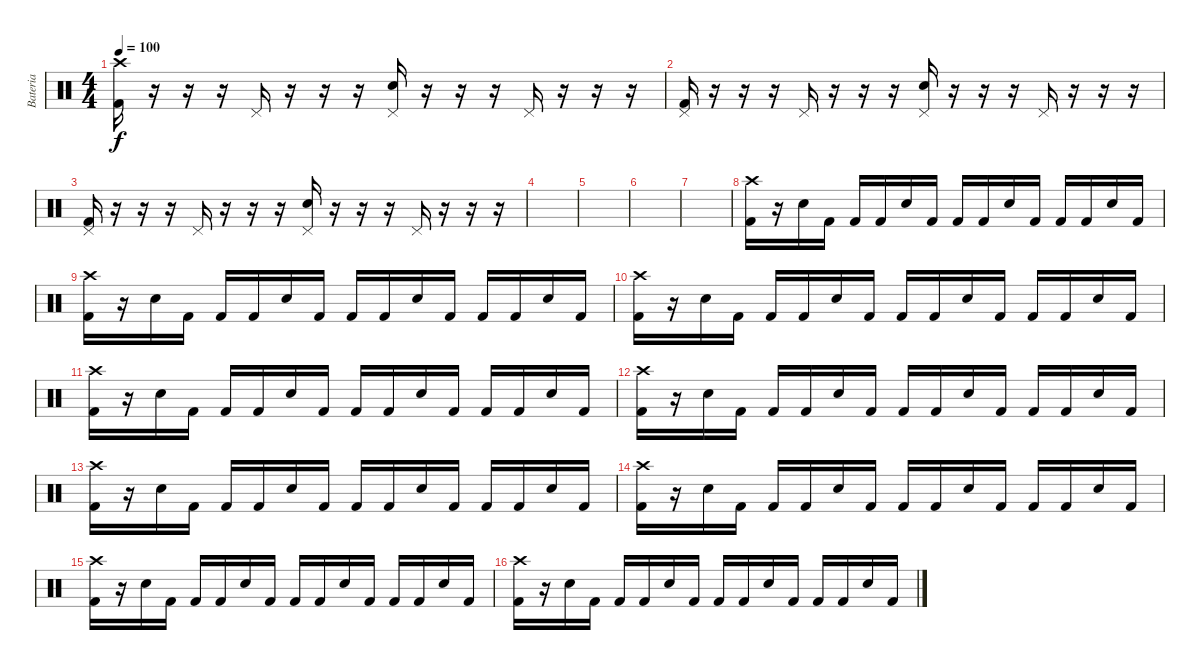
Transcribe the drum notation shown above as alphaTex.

\track ("Bateria" "Bateria") {instrument percussion}
\staff {score}
\articulation defaults
\ts (4 4)
\tempo 100
\clef neutral
\ks c
("Crash high (hit)" "Kick (hit) 2").16{dy f} r.16 r.16 r.16 "Pedal Hi-Hat (hit)".16 r.16 r.16 r.16 ("Pedal Hi-Hat (hit)" "Snare (hit) 2").16 r.16 r.16 r.16 "Pedal Hi-Hat (hit)".16 r.16 r.16 r.16 |
("Pedal Hi-Hat (hit)" "Kick (hit) 2").16 r.16 r.16 r.16 "Pedal Hi-Hat (hit)".16 r.16 r.16 r.16 ("Pedal Hi-Hat (hit)" "Snare (hit) 2").16 r.16 r.16 r.16 "Pedal Hi-Hat (hit)".16 r.16 r.16 r.16 |
("Pedal Hi-Hat (hit)" "Kick (hit) 2").16 r.16 r.16 r.16 "Pedal Hi-Hat (hit)".16 r.16 r.16 r.16 ("Pedal Hi-Hat (hit)" "Snare (hit) 2").16 r.16 r.16 r.16 "Pedal Hi-Hat (hit)".16 r.16 r.16 r.16 |
|
|
|
|
("Crash high (hit)" "Kick (hit) 2").16 r.16 "Snare (hit) 2".16 "Kick (hit) 2".16 "Kick (hit) 2".16 "Kick (hit) 2".16 "Snare (hit) 2".16 "Kick (hit) 2".16 "Kick (hit) 2".16 "Kick (hit) 2".16 "Snare (hit) 2".16 "Kick (hit) 2".16 "Kick (hit) 2".16 "Kick (hit) 2".16 "Snare (hit) 2".16 "Kick (hit) 2".16 |
("Crash high (hit)" "Kick (hit) 2").16 r.16 "Snare (hit) 2".16 "Kick (hit) 2".16 "Kick (hit) 2".16 "Kick (hit) 2".16 "Snare (hit) 2".16 "Kick (hit) 2".16 "Kick (hit) 2".16 "Kick (hit) 2".16 "Snare (hit) 2".16 "Kick (hit) 2".16 "Kick (hit) 2".16 "Kick (hit) 2".16 "Snare (hit) 2".16 "Kick (hit) 2".16 |
("Crash high (hit)" "Kick (hit) 2").16 r.16 "Snare (hit) 2".16 "Kick (hit) 2".16 "Kick (hit) 2".16 "Kick (hit) 2".16 "Snare (hit) 2".16 "Kick (hit) 2".16 "Kick (hit) 2".16 "Kick (hit) 2".16 "Snare (hit) 2".16 "Kick (hit) 2".16 "Kick (hit) 2".16 "Kick (hit) 2".16 "Snare (hit) 2".16 "Kick (hit) 2".16 |
("Crash high (hit)" "Kick (hit) 2").16 r.16 "Snare (hit) 2".16 "Kick (hit) 2".16 "Kick (hit) 2".16 "Kick (hit) 2".16 "Snare (hit) 2".16 "Kick (hit) 2".16 "Kick (hit) 2".16 "Kick (hit) 2".16 "Snare (hit) 2".16 "Kick (hit) 2".16 "Kick (hit) 2".16 "Kick (hit) 2".16 "Snare (hit) 2".16 "Kick (hit) 2".16 |
("Crash high (hit)" "Kick (hit) 2").16 r.16 "Snare (hit) 2".16 "Kick (hit) 2".16 "Kick (hit) 2".16 "Kick (hit) 2".16 "Snare (hit) 2".16 "Kick (hit) 2".16 "Kick (hit) 2".16 "Kick (hit) 2".16 "Snare (hit) 2".16 "Kick (hit) 2".16 "Kick (hit) 2".16 "Kick (hit) 2".16 "Snare (hit) 2".16 "Kick (hit) 2".16 |
("Crash high (hit)" "Kick (hit) 2").16 r.16 "Snare (hit) 2".16 "Kick (hit) 2".16 "Kick (hit) 2".16 "Kick (hit) 2".16 "Snare (hit) 2".16 "Kick (hit) 2".16 "Kick (hit) 2".16 "Kick (hit) 2".16 "Snare (hit) 2".16 "Kick (hit) 2".16 "Kick (hit) 2".16 "Kick (hit) 2".16 "Snare (hit) 2".16 "Kick (hit) 2".16 |
("Crash high (hit)" "Kick (hit) 2").16 r.16 "Snare (hit) 2".16 "Kick (hit) 2".16 "Kick (hit) 2".16 "Kick (hit) 2".16 "Snare (hit) 2".16 "Kick (hit) 2".16 "Kick (hit) 2".16 "Kick (hit) 2".16 "Snare (hit) 2".16 "Kick (hit) 2".16 "Kick (hit) 2".16 "Kick (hit) 2".16 "Snare (hit) 2".16 "Kick (hit) 2".16 |
("Crash high (hit)" "Kick (hit) 2").16 r.16 "Snare (hit) 2".16 "Kick (hit) 2".16 "Kick (hit) 2".16 "Kick (hit) 2".16 "Snare (hit) 2".16 "Kick (hit) 2".16 "Kick (hit) 2".16 "Kick (hit) 2".16 "Snare (hit) 2".16 "Kick (hit) 2".16 "Kick (hit) 2".16 "Kick (hit) 2".16 "Snare (hit) 2".16 "Kick (hit) 2".16 |
("Crash high (hit)" "Kick (hit) 2").16 r.16 "Snare (hit) 2".16 "Kick (hit) 2".16 "Kick (hit) 2".16 "Kick (hit) 2".16 "Snare (hit) 2".16 "Kick (hit) 2".16 "Kick (hit) 2".16 "Kick (hit) 2".16 "Snare (hit) 2".16 "Kick (hit) 2".16 "Kick (hit) 2".16 "Kick (hit) 2".16 "Snare (hit) 2".16 "Kick (hit) 2".16
